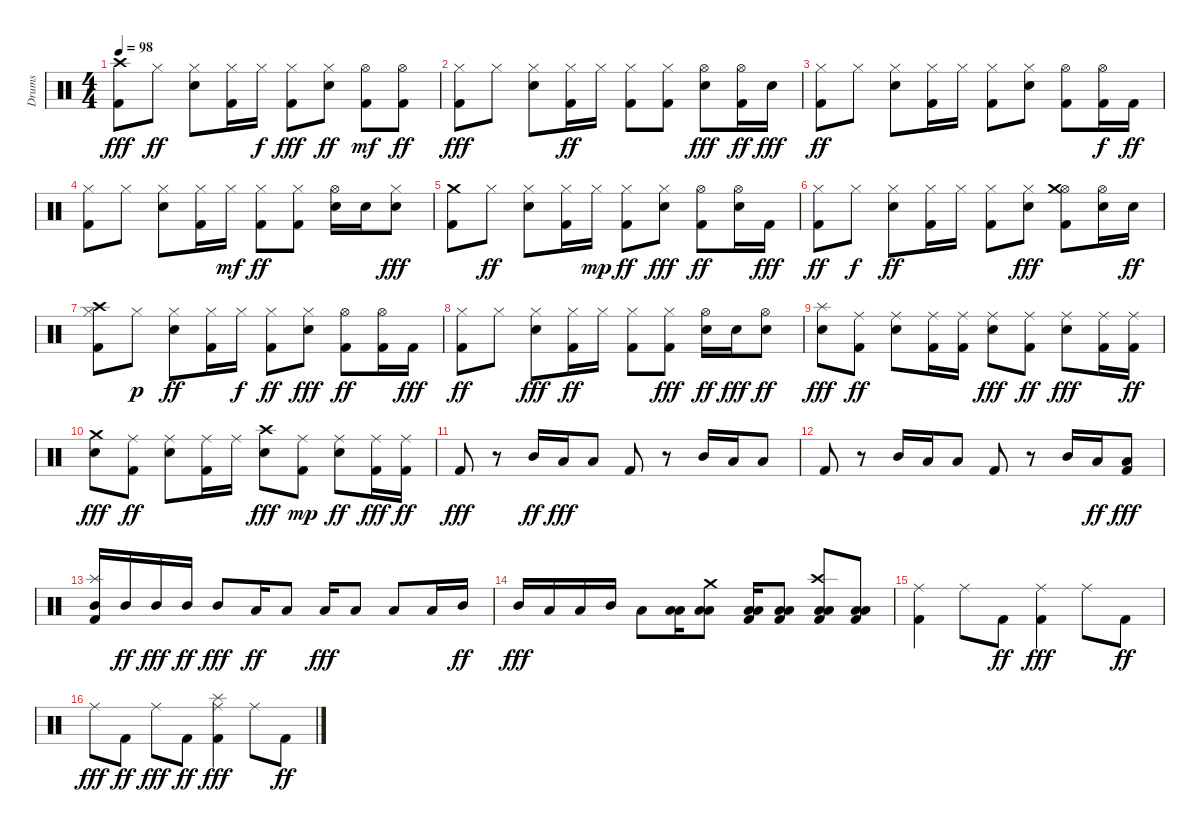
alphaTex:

\track ("Drums" "Drums") {instrument percussion}
\staff {score}
\articulation defaults
\ts (4 4)
\tempo 98
\clef neutral
\ks c
("Kick (hit) 2" "Crash high (hit)").8{dy fff} "Hi-Hat (closed)".8{dy ff} ("Snare (hit) 2" "Hi-Hat (closed)").8 ("Kick (hit) 2" "Hi-Hat (closed)").16 "Hi-Hat (closed)".16{dy f} ("Kick (hit) 2" "Hi-Hat (closed)").8{dy fff} ("Snare (hit) 2" "Hi-Hat (closed)").8{dy ff} ("Kick (hit) 2" "Hi-Hat (open)").8{dy mf} ("Kick (hit) 2" "Hi-Hat (open)").8{dy ff} |
("Kick (hit) 2" "Hi-Hat (closed)").8{dy fff} "Hi-Hat (closed)".8 ("Snare (hit) 2" "Hi-Hat (closed)").8 ("Kick (hit) 2" "Hi-Hat (closed)").16{dy ff} "Hi-Hat (closed)".16 ("Kick (hit) 2" "Hi-Hat (closed)").8 ("Kick (hit) 2" "Hi-Hat (closed)").8 ("Snare (hit) 2" "Hi-Hat (open)").8{dy fff} ("Kick (hit) 2" "Hi-Hat (open)").16{dy ff} "Snare (hit) 2".16{dy fff} |
("Kick (hit) 2" "Hi-Hat (closed)").8{dy ff} "Hi-Hat (closed)".8 ("Snare (hit) 2" "Hi-Hat (closed)").8 ("Kick (hit) 2" "Hi-Hat (closed)").16 "Hi-Hat (closed)".16 ("Kick (hit) 2" "Hi-Hat (closed)").8 ("Snare (hit) 2" "Hi-Hat (closed)").8 ("Kick (hit) 2" "Hi-Hat (open)").8 ("Kick (hit) 2" "Hi-Hat (open)").16{dy f} "Kick (hit) 2".16{dy ff} |
("Kick (hit) 2" "Hi-Hat (closed)").8 "Hi-Hat (closed)".8 ("Snare (hit) 2" "Hi-Hat (closed)").8 ("Kick (hit) 2" "Hi-Hat (closed)").16 "Hi-Hat (closed)".16{dy mf} ("Kick (hit) 2" "Hi-Hat (closed)").8{dy ff} ("Kick (hit) 2" "Hi-Hat (closed)").8 ("Snare (hit) 2" "Hi-Hat (open)").16 "Snare (hit) 2".16 ("Snare (hit) 2" "Hi-Hat (closed)").8{dy fff} |
("Kick (hit) 2" "Crash medium (hit)").8 "Hi-Hat (closed)".8{dy ff} ("Snare (hit) 2" "Hi-Hat (closed)").8 ("Kick (hit) 2" "Hi-Hat (closed)").16 "Hi-Hat (closed)".16{dy mp} ("Kick (hit) 2" "Hi-Hat (closed)").8{dy ff} ("Snare (hit) 2" "Hi-Hat (closed)").8{dy fff} ("Kick (hit) 2" "Hi-Hat (open)").8{dy ff} ("Snare (hit) 2" "Hi-Hat (open)").16 "Kick (hit) 2".16{dy fff} |
("Kick (hit) 2" "Hi-Hat (closed)").8{dy ff} "Hi-Hat (closed)".8{dy f} ("Snare (hit) 2" "Hi-Hat (closed)").8{dy ff} ("Kick (hit) 2" "Hi-Hat (closed)").16 "Hi-Hat (closed)".16 ("Kick (hit) 2" "Hi-Hat (closed)").8 ("Snare (hit) 2" "Hi-Hat (closed)").8{dy fff} ("Kick (hit) 2" "Hi-Hat (open)" "Crash medium (hit)").8 ("Snare (hit) 2" "Hi-Hat (open)").16 "Snare (hit) 2".16{dy ff} |
("Kick (hit) 2" "Crash high (hit)" "Hi-Hat (closed)").8 "Hi-Hat (closed)".8{dy p} ("Snare (hit) 2" "Hi-Hat (closed)").8{dy ff} ("Kick (hit) 2" "Hi-Hat (closed)").16 "Hi-Hat (closed)".16{dy f} ("Kick (hit) 2" "Hi-Hat (closed)").8{dy ff} ("Snare (hit) 2" "Hi-Hat (closed)").8{dy fff} ("Kick (hit) 2" "Hi-Hat (open)").8{dy ff} ("Kick (hit) 2" "Hi-Hat (open)").16 "Kick (hit) 2".16{dy fff} |
("Kick (hit) 2" "Hi-Hat (closed)").8{dy ff} "Hi-Hat (closed)".8 ("Snare (hit) 2" "Hi-Hat (closed)").8{dy fff} ("Kick (hit) 2" "Hi-Hat (closed)").16{dy ff} "Hi-Hat (closed)".16 ("Kick (hit) 2" "Hi-Hat (closed)").8 ("Kick (hit) 2" "Hi-Hat (closed)").8{dy fff} ("Snare (hit) 2" "Hi-Hat (open)").16{dy ff} "Snare (hit) 2".16{dy fff} ("Snare (hit) 2" "Hi-Hat (open)").8{dy ff} |
("Snare (hit) 2" "Splash (hit)").8{dy fff} ("Kick (hit) 2" "Ride (middle)").8{dy ff} ("Snare (hit) 2" "Ride (middle)").8 ("Kick (hit) 2" "Ride (middle)").16 ("Kick (hit) 2" "Ride (middle)").16 ("Snare (hit) 2" "Ride (middle)").8{dy fff} ("Kick (hit) 2" "Ride (middle)").8{dy ff} ("Snare (hit) 2" "Ride (middle)").8{dy fff} ("Kick (hit) 2" "Ride (middle)").16 ("Kick (hit) 2" "Ride (middle)").16{dy ff} |
("Snare (hit) 2" "Crash medium (hit)").8{dy fff} ("Kick (hit) 2" "Ride (middle)").8{dy ff} ("Snare (hit) 2" "Ride (middle)").8 ("Kick (hit) 2" "Ride (middle)").16 "Ride (middle)".16 ("Snare (hit) 2" "Crash high (hit)").8{dy fff} ("Kick (hit) 2" "Ride (middle)").8{dy mp} ("Snare (hit) 2" "Ride (middle)").8{dy ff} ("Kick (hit) 2" "Ride (middle)").16{dy fff} ("Kick (hit) 2" "Ride (middle)").16{dy ff} |
"Kick (hit) 2".8{dy fff} r.8 "Mid Tom (hit)".16{dy ff} "Low Tom (hit)".16{dy fff} "Low Floor Tom (hit)".8 "Kick (hit) 2".8 r.8 "Mid Tom (hit)".16 "Low Tom (hit)".16 "Low Floor Tom (hit)".8 |
"Kick (hit) 2".8 r.8 "Mid Tom (hit)".16 "Low Tom (hit)".16 "Low Floor Tom (hit)".8 "Kick (hit) 2".8 r.8 "Mid Tom (hit)".16 "Low Tom (hit)".16{dy ff} ("Kick (hit) 2" "Low Floor Tom (hit)").8{dy fff} |
("Kick (hit) 2" "Mid Tom (hit)" "Splash (hit)").16 "Mid Tom (hit)".16{dy ff} "Mid Tom (hit)".16{dy fff} "Mid Tom (hit)".16{dy ff} "Mid Tom (hit)".8{dy fff} "Low Tom (hit)".16{dy ff} "Low Tom (hit)".8 "Low Tom (hit)".16{dy fff} "Low Tom (hit)".8 "Low Tom (hit)".8 "Low Tom (hit)".16 "Mid Tom (hit)".16{dy ff} |
"Mid Tom (hit)".16{dy fff} "Low Tom (hit)".16 "Low Floor Tom (hit)".16 "Mid Tom (hit)".16 "Low Floor Tom (hit)".8 ("Low Floor Tom (hit)" "Low Tom (hit)").16 ("Low Floor Tom (hit)" "Low Tom (hit)" "Crash medium (hit)").8 ("Kick (hit) 2" "Low Floor Tom (hit)" "Low Tom (hit)").16 ("Kick (hit) 2" "Low Floor Tom (hit)" "Low Tom (hit)").8 ("Kick (hit) 2" "Low Floor Tom (hit)" "Low Tom (hit)" "Crash high (hit)").8 ("Kick (hit) 2" "Low Floor Tom (hit)" "Low Tom (hit)").8 |
("Kick (hit) 2" "Ride (middle)").4 "Ride (middle)".8 "Kick (hit) 2".8{dy ff} ("Kick (hit) 2" "Ride (middle)").4{dy fff} "Ride (middle)".8 "Kick (hit) 2".8{dy ff} |
"Ride (middle)".8{dy fff} "Kick (hit) 2".8{dy ff} "Ride (middle)".8{dy fff} "Kick (hit) 2".8{dy ff} ("Kick (hit) 2" "Ride (middle)" "Splash (hit)").4{dy fff} "Ride (middle)".8 "Kick (hit) 2".8{dy ff}
